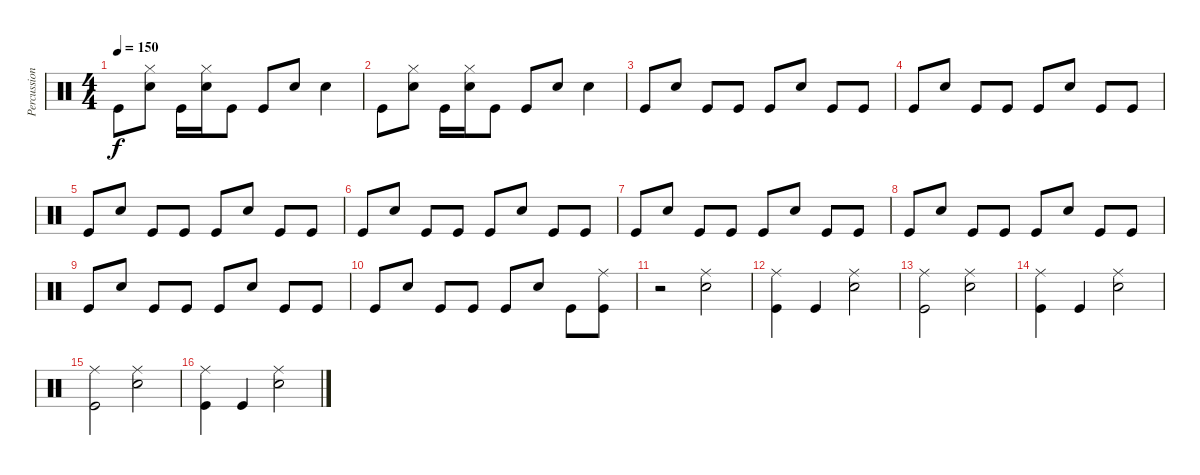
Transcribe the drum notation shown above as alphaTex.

\track ("Percussion" "Percussion") {instrument percussion}
\staff {score}
\articulation defaults
\ts (4 4)
\tempo 150
\clef neutral
\ks c "Kick (hit)".8{dy f}
("Hi-Hat (closed)" "Electric Snare (hit)").8 "Kick (hit)".16 ("Hi-Hat (closed)" "Electric Snare (hit)").16 "Kick (hit)".8 "Kick (hit)".8 "Electric Snare (hit)".8 "Electric Snare (hit)".4 |
"Kick (hit)".8 ("Hi-Hat (closed)" "Electric Snare (hit)").8 "Kick (hit)".16 ("Hi-Hat (closed)" "Electric Snare (hit)").16 "Kick (hit)".8 "Kick (hit)".8 "Electric Snare (hit)".8 "Electric Snare (hit)".4 |
"Kick (hit)".8 "Electric Snare (hit)".8 "Kick (hit)".8 "Kick (hit)".8 "Kick (hit)".8 "Electric Snare (hit)".8 "Kick (hit)".8 "Kick (hit)".8 |
"Kick (hit)".8 "Electric Snare (hit)".8 "Kick (hit)".8 "Kick (hit)".8 "Kick (hit)".8 "Electric Snare (hit)".8 "Kick (hit)".8 "Kick (hit)".8 |
"Kick (hit)".8 "Electric Snare (hit)".8 "Kick (hit)".8 "Kick (hit)".8 "Kick (hit)".8 "Electric Snare (hit)".8 "Kick (hit)".8 "Kick (hit)".8 |
"Kick (hit)".8 "Electric Snare (hit)".8 "Kick (hit)".8 "Kick (hit)".8 "Kick (hit)".8 "Electric Snare (hit)".8 "Kick (hit)".8 "Kick (hit)".8 |
"Kick (hit)".8 "Electric Snare (hit)".8 "Kick (hit)".8 "Kick (hit)".8 "Kick (hit)".8 "Electric Snare (hit)".8 "Kick (hit)".8 "Kick (hit)".8 |
"Kick (hit)".8 "Electric Snare (hit)".8 "Kick (hit)".8 "Kick (hit)".8 "Kick (hit)".8 "Electric Snare (hit)".8 "Kick (hit)".8 "Kick (hit)".8 |
"Kick (hit)".8 "Electric Snare (hit)".8 "Kick (hit)".8 "Kick (hit)".8 "Kick (hit)".8 "Electric Snare (hit)".8 "Kick (hit)".8 "Kick (hit)".8 |
"Kick (hit)".8 "Electric Snare (hit)".8 "Kick (hit)".8 "Kick (hit)".8 "Kick (hit)".8 "Electric Snare (hit)".8 "Kick (hit)".8 ("Ride (middle)" "Kick (hit)").8 |
r.2 ("Ride (middle)" "Electric Snare (hit)").2 |
("Ride (middle)" "Kick (hit)").4 "Kick (hit)".4 ("Ride (middle)" "Electric Snare (hit)").2 |
("Ride (middle)" "Kick (hit)").2 ("Ride (middle)" "Electric Snare (hit)").2 |
("Ride (middle)" "Kick (hit)").4 "Kick (hit)".4 ("Ride (middle)" "Electric Snare (hit)").2 |
("Ride (middle)" "Kick (hit)").2 ("Ride (middle)" "Electric Snare (hit)").2 |
("Ride (middle)" "Kick (hit)").4 "Kick (hit)".4 ("Ride (middle)" "Electric Snare (hit)").2
